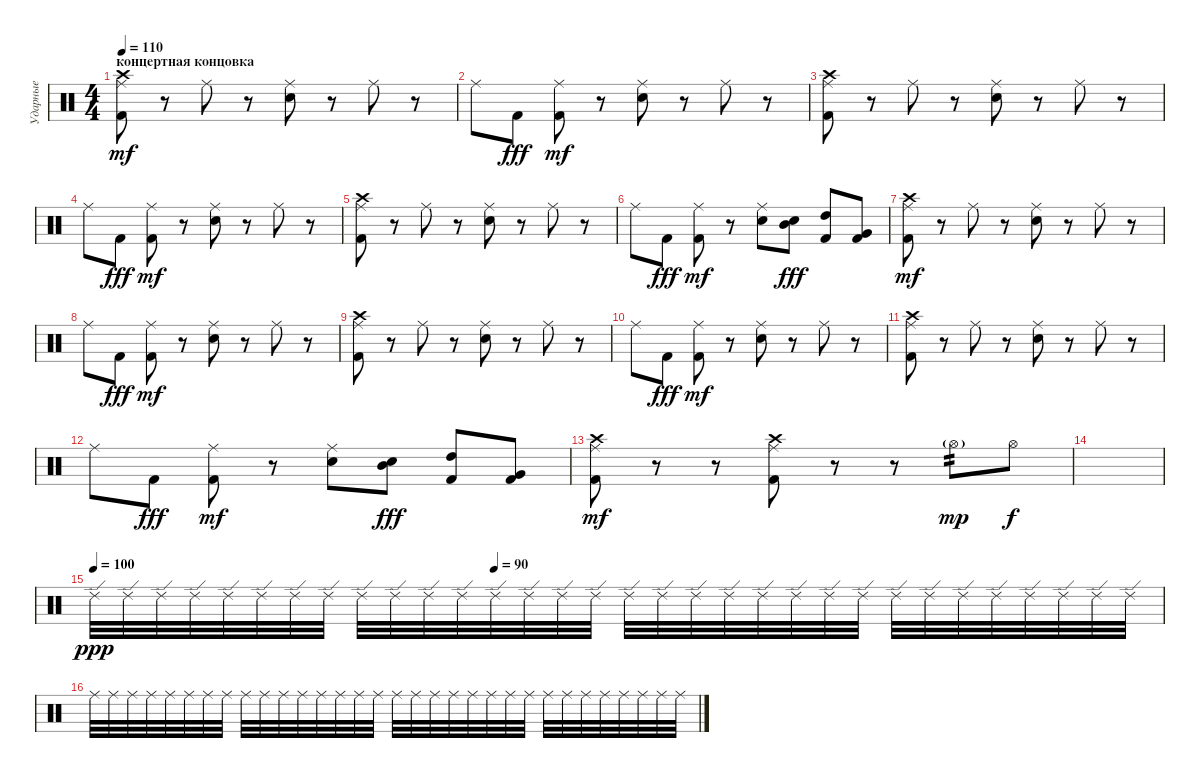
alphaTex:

\track ("Ударные" "Ударные") {instrument percussion}
\staff {score}
\articulation defaults
\ts (4 4)
\section ("" "концертная концовка")
\tempo 110
\clef neutral
\ks c
("Kick (hit) 2" "Crash high (hit)" "Ride (middle)").8{dy mf} r.8 "Ride (middle)".8 r.8 ("Electric Snare (hit)" "Ride (middle)").8 r.8 "Ride (middle)".8 r.8 |
"Ride (middle)".8 "Kick (hit) 2".8{dy fff} ("Kick (hit) 2" "Ride (middle)").8{dy mf} r.8 ("Electric Snare (hit)" "Ride (middle)").8 r.8 "Ride (middle)".8 r.8 |
("Kick (hit) 2" "Crash high (hit)" "Ride (middle)").8 r.8 "Ride (middle)".8 r.8 ("Electric Snare (hit)" "Ride (middle)").8 r.8 "Ride (middle)".8 r.8 |
"Ride (middle)".8 "Kick (hit) 2".8{dy fff} ("Kick (hit) 2" "Ride (middle)").8{dy mf} r.8 ("Electric Snare (hit)" "Ride (middle)").8 r.8 "Ride (middle)".8 r.8 |
("Kick (hit) 2" "Crash high (hit)" "Ride (middle)").8 r.8 "Ride (middle)".8 r.8 ("Electric Snare (hit)" "Ride (middle)").8 r.8 "Ride (middle)".8 r.8 |
"Ride (middle)".8 "Kick (hit) 2".8{dy fff} ("Kick (hit) 2" "Ride (middle)").8{dy mf} r.8 ("Electric Snare (hit)" "Ride (middle)").8 ("Electric Snare (hit)" "Mid Tom (hit)").8{dy fff} ("Kick (hit) 2" "High Tom (hit)").8 ("Kick (hit) 2" "Very Low Tom (hit)").8 |
("Kick (hit) 2" "Crash high (hit)" "Ride (middle)").8{dy mf} r.8 "Ride (middle)".8 r.8 ("Electric Snare (hit)" "Ride (middle)").8 r.8 "Ride (middle)".8 r.8 |
"Ride (middle)".8 "Kick (hit) 2".8{dy fff} ("Kick (hit) 2" "Ride (middle)").8{dy mf} r.8 ("Electric Snare (hit)" "Ride (middle)").8 r.8 "Ride (middle)".8 r.8 |
("Kick (hit) 2" "Crash high (hit)" "Ride (middle)").8 r.8 "Ride (middle)".8 r.8 ("Electric Snare (hit)" "Ride (middle)").8 r.8 "Ride (middle)".8 r.8 |
"Ride (middle)".8 "Kick (hit) 2".8{dy fff} ("Kick (hit) 2" "Ride (middle)").8{dy mf} r.8 ("Electric Snare (hit)" "Ride (middle)").8 r.8 "Ride (middle)".8 r.8 |
("Kick (hit) 2" "Crash high (hit)" "Ride (middle)").8 r.8 "Ride (middle)".8 r.8 ("Electric Snare (hit)" "Ride (middle)").8 r.8 "Ride (middle)".8 r.8 |
"Ride (middle)".8 "Kick (hit) 2".8{dy fff} ("Kick (hit) 2" "Ride (middle)").8{dy mf} r.8 ("Electric Snare (hit)" "Ride (middle)").8 ("Electric Snare (hit)" "Mid Tom (hit)").8{dy fff} ("Kick (hit) 2" "High Tom (hit)").8 ("Kick (hit) 2" "Very Low Tom (hit)").8 |
("Kick (hit) 2" "Crash high (hit)" "Ride (middle)").8{dy mf} r.8 r.8 ("Kick (hit) 2" "Crash high (hit)" "Ride (middle)").8 r.8 r.8 "Hi-Hat (open)"{g}.8{tp 2 dy mp} "Hi-Hat (open)".8{dy f} |
|
\tempo 100
\tempo (90 0.375)
"Ride (edge) 2".32{dy ppp} "Ride (edge) 2".32 "Ride (edge) 2".32 "Ride (edge) 2".32 "Ride (edge) 2".32 "Ride (edge) 2".32 "Ride (edge) 2".32 "Ride (edge) 2".32 "Ride (edge) 2".32 "Ride (edge) 2".32 "Ride (edge) 2".32 "Ride (edge) 2".32 "Ride (edge) 2".32 "Ride (edge) 2".32 "Ride (edge) 2".32 "Ride (edge) 2".32 "Ride (edge) 2".32 "Ride (edge) 2".32 "Ride (edge) 2".32 "Ride (edge) 2".32 "Ride (edge) 2".32 "Ride (edge) 2".32 "Ride (edge) 2".32 "Ride (edge) 2".32 "Ride (edge) 2".32 "Ride (edge) 2".32 "Ride (edge) 2".32 "Ride (edge) 2".32 "Ride (edge) 2".32 "Ride (edge) 2".32 "Ride (edge) 2".32 "Ride (edge) 2".32 |
"Ride (middle)".32 "Ride (middle)".32 "Ride (middle)".32 "Ride (middle)".32 "Ride (middle)".32 "Ride (middle)".32 "Ride (middle)".32 "Ride (middle)".32 "Ride (middle)".32 "Ride (middle)".32 "Ride (middle)".32 "Ride (middle)".32 "Ride (middle)".32 "Ride (middle)".32 "Ride (middle)".32 "Ride (middle)".32 "Ride (middle)".32 "Ride (middle)".32 "Ride (middle)".32 "Ride (middle)".32 "Ride (middle)".32 "Ride (middle)".32 "Ride (middle)".32 "Ride (middle)".32 "Ride (middle)".32 "Ride (middle)".32 "Ride (middle)".32 "Ride (middle)".32 "Ride (middle)".32 "Ride (middle)".32 "Ride (middle)".32 "Ride (middle)".32
